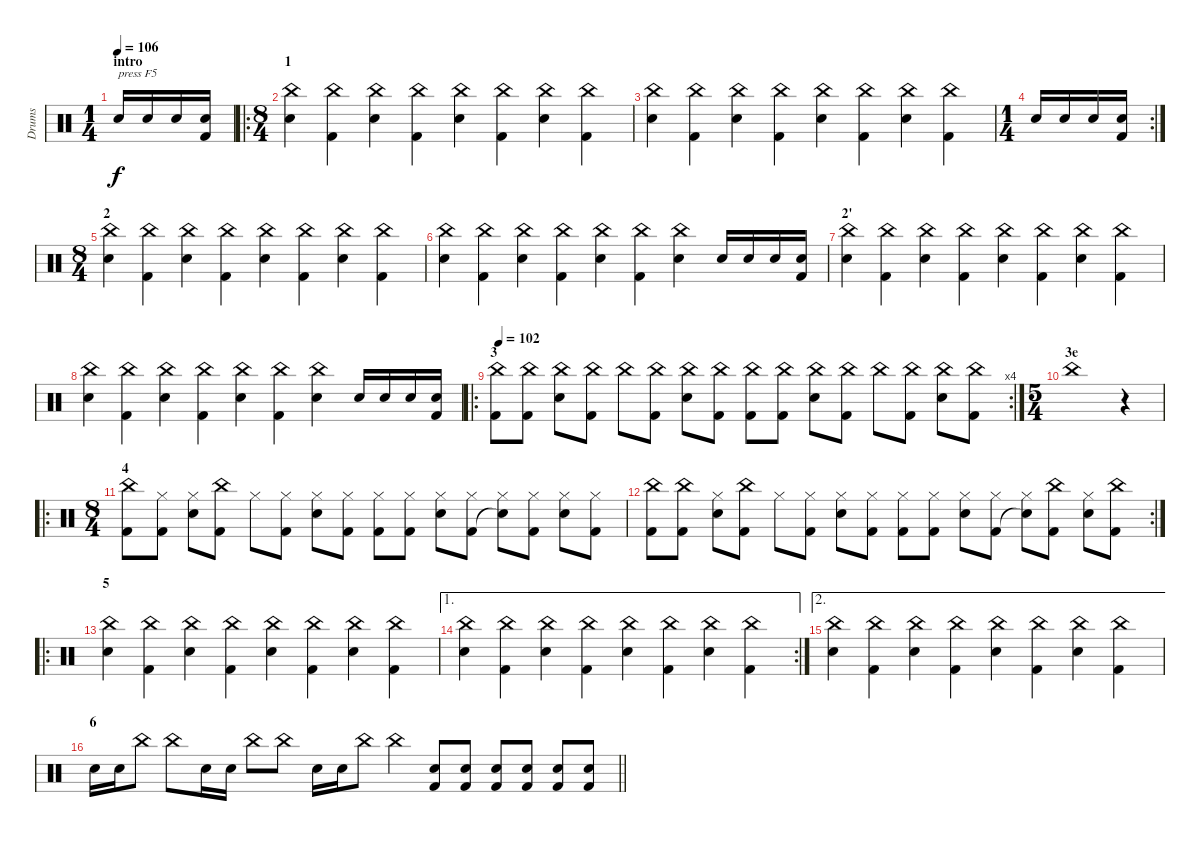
\track ("Drums" "Drums") {instrument percussion}
\staff {score}
\articulation defaults
\ts (1 4)
\section ("" "intro")
\tempo 106
\clef neutral
\ks c "Snare (hit) 2".16{txt "press F5" dy f} "Snare (hit) 2".16 "Electric Snare (hit)".16
("Electric Snare (hit)" "Kick (hit) 2").16 |
\ro
\ts (8 4)
\section ("" "1")
("China (hit)" "Electric Snare (hit)").4 ("China (hit)" "Kick (hit) 2").4 ("China (hit)" "Electric Snare (hit)").4 ("China (hit)" "Kick (hit) 2").4 ("China (hit)" "Electric Snare (hit)").4 ("China (hit)" "Kick (hit) 2").4 ("China (hit)" "Electric Snare (hit)").4 ("China (hit)" "Kick (hit) 2").4 |
("China (hit)" "Electric Snare (hit)").4 ("China (hit)" "Kick (hit) 2").4 ("China (hit)" "Electric Snare (hit)").4 ("China (hit)" "Kick (hit) 2").4 ("China (hit)" "Electric Snare (hit)").4 ("China (hit)" "Kick (hit) 2").4 ("China (hit)" "Electric Snare (hit)").4 ("China (hit)" "Kick (hit) 2").4 |
\rc 2
\ts (1 4)
"Snare (hit) 2".16 "Snare (hit) 2".16 "Electric Snare (hit)".16 ("Electric Snare (hit)" "Kick (hit) 2").16 |
\ts (8 4)
\section ("" "2")
("China (hit)" "Electric Snare (hit)").4 ("China (hit)" "Kick (hit) 2").4 ("China (hit)" "Electric Snare (hit)").4 ("China (hit)" "Kick (hit) 2").4 ("China (hit)" "Electric Snare (hit)").4 ("China (hit)" "Kick (hit) 2").4 ("China (hit)" "Electric Snare (hit)").4 ("China (hit)" "Kick (hit) 2").4 |
("China (hit)" "Electric Snare (hit)").4 ("China (hit)" "Kick (hit) 2").4 ("China (hit)" "Electric Snare (hit)").4 ("China (hit)" "Kick (hit) 2").4 ("China (hit)" "Electric Snare (hit)").4 ("China (hit)" "Kick (hit) 2").4 ("China (hit)" "Electric Snare (hit)").4 "Snare (hit) 2".16 "Snare (hit) 2".16 "Electric Snare (hit)".16 ("Electric Snare (hit)" "Kick (hit) 2").16 |
\section ("" "2'")
("China (hit)" "Electric Snare (hit)").4 ("China (hit)" "Kick (hit) 2").4 ("China (hit)" "Electric Snare (hit)").4 ("China (hit)" "Kick (hit) 2").4 ("China (hit)" "Electric Snare (hit)").4 ("China (hit)" "Kick (hit) 2").4 ("China (hit)" "Electric Snare (hit)").4 ("China (hit)" "Kick (hit) 2").4 |
("China (hit)" "Electric Snare (hit)").4 ("China (hit)" "Kick (hit) 2").4 ("China (hit)" "Electric Snare (hit)").4 ("China (hit)" "Kick (hit) 2").4 ("China (hit)" "Electric Snare (hit)").4 ("China (hit)" "Kick (hit) 2").4 ("China (hit)" "Electric Snare (hit)").4 "Snare (hit) 2".16 "Snare (hit) 2".16 "Electric Snare (hit)".16 ("Electric Snare (hit)" "Kick (hit) 2").16 |
\ro
\rc 4
\section ("" "3")
\tempo 102
("China (hit)" "Kick (hit) 2").8 ("China (hit)" "Kick (hit) 2").8 ("China (hit)" "Snare (hit) 2").8 ("China (hit)" "Kick (hit) 2").8 "China (hit)".8 ("China (hit)" "Kick (hit) 2").8 ("China (hit)" "Snare (hit) 2").8 ("China (hit)" "Kick (hit) 2").8 ("China (hit)" "Kick (hit) 2").8 ("China (hit)" "Kick (hit) 2").8 ("China (hit)" "Snare (hit) 2").8 ("China (hit)" "Kick (hit) 2").8 "China (hit)".8 ("China (hit)" "Kick (hit) 2").8 ("China (hit)" "Snare (hit) 2").8 ("China (hit)" "Kick (hit) 2").8 |
\ts (5 4)
\section ("" "3e")
"China (hit)".1 r.4 |
\ro
\ts (8 4)
\section ("" "4")
("China (hit)" "Kick (hit) 2").8 ("Hi-Hat (closed)" "Kick (hit) 2").8 ("Hi-Hat (closed)" "Snare (hit) 2").8 ("China (hit)" "Kick (hit) 2").8 "Hi-Hat (closed)".8 ("Hi-Hat (closed)" "Kick (hit) 2").8 ("Hi-Hat (closed)" "Snare (hit) 2").8 ("Hi-Hat (closed)" "Kick (hit) 2").8 ("Hi-Hat (closed)" "Kick (hit) 2").8 ("Hi-Hat (closed)" "Kick (hit) 2").8 ("Hi-Hat (closed)" "Snare (hit) 2").8 ("Hi-Hat (closed)" "Kick (hit) 2").8 ("Hi-Hat (closed)" "Snare (hit)"{t}).8 ("Hi-Hat (closed)" "Kick (hit) 2").8 ("Hi-Hat (closed)" "Snare (hit) 2").8 ("Hi-Hat (closed)" "Kick (hit) 2").8 |
\rc 2
("China (hit)" "Kick (hit) 2").8 ("China (hit)" "Kick (hit) 2").8 ("Hi-Hat (closed)" "Snare (hit) 2").8 ("China (hit)" "Kick (hit) 2").8 "Hi-Hat (closed)".8 ("Hi-Hat (closed)" "Kick (hit) 2").8 ("Hi-Hat (closed)" "Snare (hit) 2").8 ("Hi-Hat (closed)" "Kick (hit) 2").8 ("Hi-Hat (closed)" "Kick (hit) 2").8 ("Hi-Hat (closed)" "Kick (hit) 2").8 ("Hi-Hat (closed)" "Snare (hit) 2").8 ("Hi-Hat (closed)" "Kick (hit) 2").8 ("Hi-Hat (closed)" "Snare (hit)"{t}).8 ("China (hit)" "Kick (hit) 2").8 ("Hi-Hat (closed)" "Snare (hit) 2").8 ("China (hit)" "Kick (hit) 2").8 |
\ro
\section ("" "5")
("China (hit)" "Electric Snare (hit)").4 ("China (hit)" "Kick (hit) 2").4 ("China (hit)" "Electric Snare (hit)").4 ("China (hit)" "Kick (hit) 2").4 ("China (hit)" "Electric Snare (hit)").4 ("China (hit)" "Kick (hit) 2").4 ("China (hit)" "Electric Snare (hit)").4 ("China (hit)" "Kick (hit) 2").4 |
\ae 1
\rc 2
("China (hit)" "Electric Snare (hit)").4 ("China (hit)" "Kick (hit) 2").4 ("China (hit)" "Electric Snare (hit)").4 ("China (hit)" "Kick (hit) 2").4 ("China (hit)" "Electric Snare (hit)").4 ("China (hit)" "Kick (hit) 2").4 ("China (hit)" "Electric Snare (hit)").4 ("China (hit)" "Kick (hit) 2").4 |
\ae 2
("China (hit)" "Electric Snare (hit)").4 ("China (hit)" "Kick (hit) 2").4 ("China (hit)" "Electric Snare (hit)").4 ("China (hit)" "Kick (hit) 2").4 ("China (hit)" "Electric Snare (hit)").4 ("China (hit)" "Kick (hit) 2").4 ("China (hit)" "Electric Snare (hit)").4 ("China (hit)" "Kick (hit) 2").4 |
\section ("" "6")
\barLineRight lightlight "Electric Snare (hit)".16 "Electric Snare (hit)".16 "China (hit)".8 "China (hit)".8 "Electric Snare (hit)".16 "Electric Snare (hit)".16 "China (hit)".8 "China (hit)".8 "Electric Snare (hit)".16 "Electric Snare (hit)".16 "China (hit)".8 "China (hit)".4
("Snare (hit) 2" "Kick (hit) 2").8 ("Snare (hit) 2" "Kick (hit) 2").8 ("Snare (hit) 2" "Kick (hit) 2").8 ("Snare (hit) 2" "Kick (hit) 2").8 ("Snare (hit) 2" "Kick (hit) 2").8 ("Snare (hit) 2" "Kick (hit) 2").8
